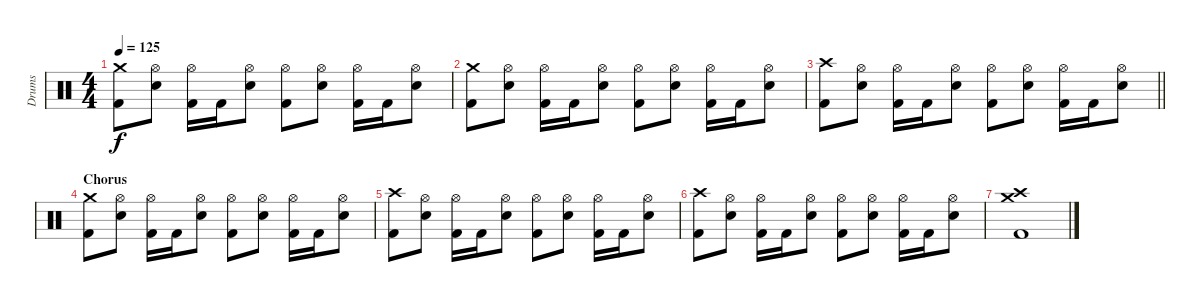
\track ("Drums" "Drums") {instrument percussion}
\staff {score}
\articulation defaults
\ts (4 4)
\tempo 125
\clef neutral
\ks c
("Crash medium (hit)" "Kick (hit) 2").8{dy f} ("Hi-Hat (open)" "Electric Snare (hit)").8 ("Hi-Hat (open)" "Kick (hit) 2").16 "Kick (hit) 2".16 ("Hi-Hat (open)" "Electric Snare (hit)").8 ("Hi-Hat (open)" "Kick (hit) 2").8 ("Hi-Hat (open)" "Electric Snare (hit)").8 ("Hi-Hat (open)" "Kick (hit) 2").16 "Kick (hit) 2".16 ("Hi-Hat (open)" "Electric Snare (hit)").8 |
("Crash medium (hit)" "Kick (hit) 2").8 ("Hi-Hat (open)" "Electric Snare (hit)").8 ("Hi-Hat (open)" "Kick (hit) 2").16 "Kick (hit) 2".16 ("Hi-Hat (open)" "Electric Snare (hit)").8 ("Hi-Hat (open)" "Kick (hit) 2").8 ("Hi-Hat (open)" "Electric Snare (hit)").8 ("Hi-Hat (open)" "Kick (hit) 2").16 "Kick (hit) 2".16 ("Hi-Hat (open)" "Electric Snare (hit)").8 |
\barLineRight lightlight
("Crash high (hit)" "Kick (hit) 2").8 ("Hi-Hat (open)" "Electric Snare (hit)").8 ("Hi-Hat (open)" "Kick (hit) 2").16 "Kick (hit) 2".16 ("Hi-Hat (open)" "Electric Snare (hit)").8 ("Hi-Hat (open)" "Kick (hit) 2").8 ("Hi-Hat (open)" "Electric Snare (hit)").8 ("Hi-Hat (open)" "Kick (hit) 2").16 "Kick (hit) 2".16 ("Hi-Hat (open)" "Electric Snare (hit)").8 |
\section ("" "Chorus")
("Crash medium (hit)" "Kick (hit) 2").8 ("Hi-Hat (open)" "Electric Snare (hit)").8 ("Hi-Hat (open)" "Kick (hit) 2").16 "Kick (hit) 2".16 ("Hi-Hat (open)" "Electric Snare (hit)").8 ("Hi-Hat (open)" "Kick (hit) 2").8 ("Hi-Hat (open)" "Electric Snare (hit)").8 ("Hi-Hat (open)" "Kick (hit) 2").16 "Kick (hit) 2".16 ("Hi-Hat (open)" "Electric Snare (hit)").8 |
("Crash high (hit)" "Kick (hit) 2").8 ("Hi-Hat (open)" "Electric Snare (hit)").8 ("Hi-Hat (open)" "Kick (hit) 2").16 "Kick (hit) 2".16 ("Hi-Hat (open)" "Electric Snare (hit)").8 ("Hi-Hat (open)" "Kick (hit) 2").8 ("Hi-Hat (open)" "Electric Snare (hit)").8 ("Hi-Hat (open)" "Kick (hit) 2").16 "Kick (hit) 2".16 ("Hi-Hat (open)" "Electric Snare (hit)").8 |
("Crash high (hit)" "Kick (hit) 2").8 ("Hi-Hat (open)" "Electric Snare (hit)").8 ("Hi-Hat (open)" "Kick (hit) 2").16 "Kick (hit) 2".16 ("Hi-Hat (open)" "Electric Snare (hit)").8 ("Hi-Hat (open)" "Kick (hit) 2").8 ("Hi-Hat (open)" "Electric Snare (hit)").8 ("Hi-Hat (open)" "Kick (hit) 2").16 "Kick (hit) 2".16 ("Hi-Hat (open)" "Electric Snare (hit)").8 |
("Crash high (hit)" "Crash medium (hit)" "Kick (hit) 2").1
